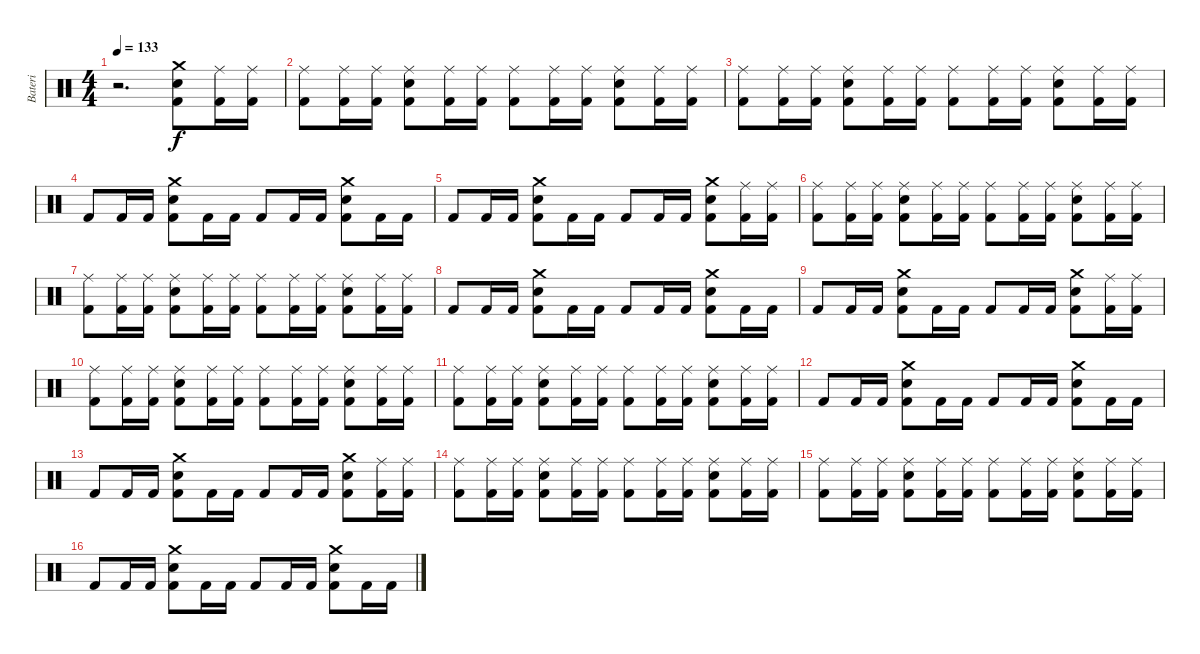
\track ("Bateri" "Bateri") {instrument percussion}
\staff {score}
\articulation defaults
\ts (4 4)
\tempo 133
\clef neutral
\ks c
r.2{d dy f} ("Crash medium (hit)" "Snare (hit) 2" "Kick (hit) 2").8 ("Ride (middle)" "Kick (hit) 2").16 ("Ride (middle)" "Kick (hit) 2").16 |
("Ride (middle)" "Kick (hit) 2").8 ("Ride (middle)" "Kick (hit) 2").16 ("Ride (middle)" "Kick (hit) 2").16 ("Snare (hit) 2" "Ride (middle)" "Kick (hit) 2").8 ("Ride (middle)" "Kick (hit) 2").16 ("Ride (middle)" "Kick (hit) 2").16 ("Ride (middle)" "Kick (hit) 2").8 ("Ride (middle)" "Kick (hit) 2").16 ("Ride (middle)" "Kick (hit) 2").16 ("Snare (hit) 2" "Ride (middle)" "Kick (hit) 2").8 ("Ride (middle)" "Kick (hit) 2").16 ("Ride (middle)" "Kick (hit) 2").16 |
("Ride (middle)" "Kick (hit) 2").8 ("Ride (middle)" "Kick (hit) 2").16 ("Ride (middle)" "Kick (hit) 2").16 ("Snare (hit) 2" "Ride (middle)" "Kick (hit) 2").8 ("Ride (middle)" "Kick (hit) 2").16 ("Ride (middle)" "Kick (hit) 2").16 ("Ride (middle)" "Kick (hit) 2").8 ("Ride (middle)" "Kick (hit) 2").16 ("Ride (middle)" "Kick (hit) 2").16 ("Snare (hit) 2" "Ride (middle)" "Kick (hit) 2").8 ("Ride (middle)" "Kick (hit) 2").16 ("Ride (middle)" "Kick (hit) 2").16 |
"Kick (hit) 2".8 "Kick (hit) 2".16 "Kick (hit) 2".16 ("Crash medium (hit)" "Snare (hit) 2" "Kick (hit) 2").8 "Kick (hit) 2".16 "Kick (hit) 2".16 "Kick (hit) 2".8 "Kick (hit) 2".16 "Kick (hit) 2".16 ("Crash medium (hit)" "Snare (hit) 2" "Kick (hit) 2").8 "Kick (hit) 2".16 "Kick (hit) 2".16 |
"Kick (hit) 2".8 "Kick (hit) 2".16 "Kick (hit) 2".16 ("Crash medium (hit)" "Snare (hit) 2" "Kick (hit) 2").8 "Kick (hit) 2".16 "Kick (hit) 2".16 "Kick (hit) 2".8 "Kick (hit) 2".16 "Kick (hit) 2".16 ("Crash medium (hit)" "Snare (hit) 2" "Kick (hit) 2").8 ("Ride (middle)" "Kick (hit) 2").16 ("Ride (middle)" "Kick (hit) 2").16 |
("Ride (middle)" "Kick (hit) 2").8 ("Ride (middle)" "Kick (hit) 2").16 ("Ride (middle)" "Kick (hit) 2").16 ("Snare (hit) 2" "Ride (middle)" "Kick (hit) 2").8 ("Ride (middle)" "Kick (hit) 2").16 ("Ride (middle)" "Kick (hit) 2").16 ("Ride (middle)" "Kick (hit) 2").8 ("Ride (middle)" "Kick (hit) 2").16 ("Ride (middle)" "Kick (hit) 2").16 ("Snare (hit) 2" "Ride (middle)" "Kick (hit) 2").8 ("Ride (middle)" "Kick (hit) 2").16 ("Ride (middle)" "Kick (hit) 2").16 |
("Ride (middle)" "Kick (hit) 2").8 ("Ride (middle)" "Kick (hit) 2").16 ("Ride (middle)" "Kick (hit) 2").16 ("Snare (hit) 2" "Ride (middle)" "Kick (hit) 2").8 ("Ride (middle)" "Kick (hit) 2").16 ("Ride (middle)" "Kick (hit) 2").16 ("Ride (middle)" "Kick (hit) 2").8 ("Ride (middle)" "Kick (hit) 2").16 ("Ride (middle)" "Kick (hit) 2").16 ("Snare (hit) 2" "Ride (middle)" "Kick (hit) 2").8 ("Ride (middle)" "Kick (hit) 2").16 ("Ride (middle)" "Kick (hit) 2").16 |
"Kick (hit) 2".8 "Kick (hit) 2".16 "Kick (hit) 2".16 ("Crash medium (hit)" "Snare (hit) 2" "Kick (hit) 2").8 "Kick (hit) 2".16 "Kick (hit) 2".16 "Kick (hit) 2".8 "Kick (hit) 2".16 "Kick (hit) 2".16 ("Crash medium (hit)" "Snare (hit) 2" "Kick (hit) 2").8 "Kick (hit) 2".16 "Kick (hit) 2".16 |
"Kick (hit) 2".8 "Kick (hit) 2".16 "Kick (hit) 2".16 ("Crash medium (hit)" "Snare (hit) 2" "Kick (hit) 2").8 "Kick (hit) 2".16 "Kick (hit) 2".16 "Kick (hit) 2".8 "Kick (hit) 2".16 "Kick (hit) 2".16 ("Crash medium (hit)" "Snare (hit) 2" "Kick (hit) 2").8 ("Ride (middle)" "Kick (hit) 2").16 ("Ride (middle)" "Kick (hit) 2").16 |
("Ride (middle)" "Kick (hit) 2").8 ("Ride (middle)" "Kick (hit) 2").16 ("Ride (middle)" "Kick (hit) 2").16 ("Snare (hit) 2" "Ride (middle)" "Kick (hit) 2").8 ("Ride (middle)" "Kick (hit) 2").16 ("Ride (middle)" "Kick (hit) 2").16 ("Ride (middle)" "Kick (hit) 2").8 ("Ride (middle)" "Kick (hit) 2").16 ("Ride (middle)" "Kick (hit) 2").16 ("Snare (hit) 2" "Ride (middle)" "Kick (hit) 2").8 ("Ride (middle)" "Kick (hit) 2").16 ("Ride (middle)" "Kick (hit) 2").16 |
("Ride (middle)" "Kick (hit) 2").8 ("Ride (middle)" "Kick (hit) 2").16 ("Ride (middle)" "Kick (hit) 2").16 ("Snare (hit) 2" "Ride (middle)" "Kick (hit) 2").8 ("Ride (middle)" "Kick (hit) 2").16 ("Ride (middle)" "Kick (hit) 2").16 ("Ride (middle)" "Kick (hit) 2").8 ("Ride (middle)" "Kick (hit) 2").16 ("Ride (middle)" "Kick (hit) 2").16 ("Snare (hit) 2" "Ride (middle)" "Kick (hit) 2").8 ("Ride (middle)" "Kick (hit) 2").16 ("Ride (middle)" "Kick (hit) 2").16 |
"Kick (hit) 2".8 "Kick (hit) 2".16 "Kick (hit) 2".16 ("Crash medium (hit)" "Snare (hit) 2" "Kick (hit) 2").8 "Kick (hit) 2".16 "Kick (hit) 2".16 "Kick (hit) 2".8 "Kick (hit) 2".16 "Kick (hit) 2".16 ("Crash medium (hit)" "Snare (hit) 2" "Kick (hit) 2").8 "Kick (hit) 2".16 "Kick (hit) 2".16 |
"Kick (hit) 2".8 "Kick (hit) 2".16 "Kick (hit) 2".16 ("Crash medium (hit)" "Snare (hit) 2" "Kick (hit) 2").8 "Kick (hit) 2".16 "Kick (hit) 2".16 "Kick (hit) 2".8 "Kick (hit) 2".16 "Kick (hit) 2".16 ("Crash medium (hit)" "Snare (hit) 2" "Kick (hit) 2").8 ("Ride (middle)" "Kick (hit) 2").16 ("Ride (middle)" "Kick (hit) 2").16 |
("Ride (middle)" "Kick (hit) 2").8 ("Ride (middle)" "Kick (hit) 2").16 ("Ride (middle)" "Kick (hit) 2").16 ("Snare (hit) 2" "Ride (middle)" "Kick (hit) 2").8 ("Ride (middle)" "Kick (hit) 2").16 ("Ride (middle)" "Kick (hit) 2").16 ("Ride (middle)" "Kick (hit) 2").8 ("Ride (middle)" "Kick (hit) 2").16 ("Ride (middle)" "Kick (hit) 2").16 ("Snare (hit) 2" "Ride (middle)" "Kick (hit) 2").8 ("Ride (middle)" "Kick (hit) 2").16 ("Ride (middle)" "Kick (hit) 2").16 |
("Ride (middle)" "Kick (hit) 2").8 ("Ride (middle)" "Kick (hit) 2").16 ("Ride (middle)" "Kick (hit) 2").16 ("Snare (hit) 2" "Ride (middle)" "Kick (hit) 2").8 ("Ride (middle)" "Kick (hit) 2").16 ("Ride (middle)" "Kick (hit) 2").16 ("Ride (middle)" "Kick (hit) 2").8 ("Ride (middle)" "Kick (hit) 2").16 ("Ride (middle)" "Kick (hit) 2").16 ("Snare (hit) 2" "Ride (middle)" "Kick (hit) 2").8 ("Ride (middle)" "Kick (hit) 2").16 ("Ride (middle)" "Kick (hit) 2").16 |
"Kick (hit) 2".8 "Kick (hit) 2".16 "Kick (hit) 2".16 ("Crash medium (hit)" "Snare (hit) 2" "Kick (hit) 2").8 "Kick (hit) 2".16 "Kick (hit) 2".16 "Kick (hit) 2".8 "Kick (hit) 2".16 "Kick (hit) 2".16 ("Crash medium (hit)" "Snare (hit) 2" "Kick (hit) 2").8 "Kick (hit) 2".16 "Kick (hit) 2".16
